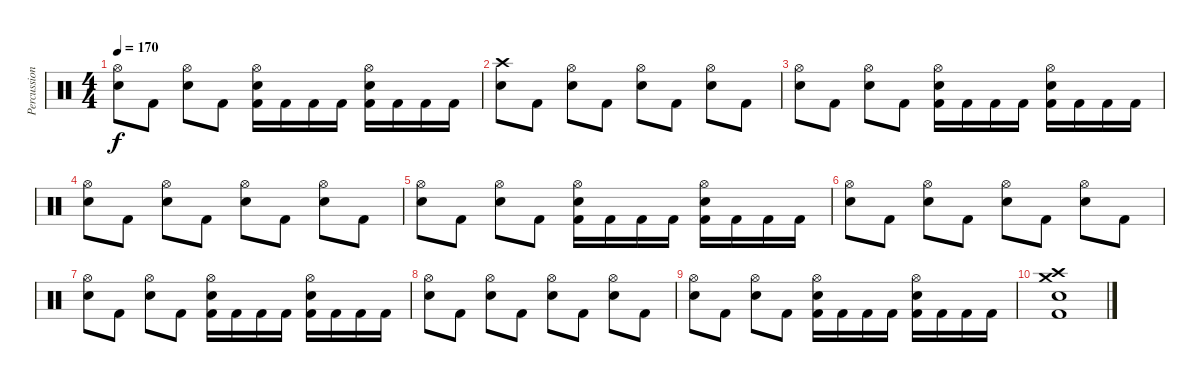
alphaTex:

\track ("Percussion" "Percussion") {instrument percussion}
\staff {score}
\articulation defaults
\ts (4 4)
\tempo 170
\clef neutral
\ks c
("Hi-Hat (open)" "Snare (hit) 2").8{dy f} "Kick (hit) 2".8 ("Hi-Hat (open)" "Snare (hit) 2").8 "Kick (hit) 2".8 ("Hi-Hat (open)" "Snare (hit) 2" "Kick (hit) 2").16 "Kick (hit) 2".16 "Kick (hit) 2".16 "Kick (hit) 2".16 ("Hi-Hat (open)" "Snare (hit) 2" "Kick (hit) 2").16 "Kick (hit) 2".16 "Kick (hit) 2".16 "Kick (hit) 2".16 |
("Crash high (hit)" "Snare (hit) 2").8 "Kick (hit) 2".8 ("Hi-Hat (open)" "Snare (hit) 2").8 "Kick (hit) 2".8 ("Hi-Hat (open)" "Snare (hit) 2").8 "Kick (hit) 2".8 ("Hi-Hat (open)" "Snare (hit) 2").8 "Kick (hit) 2".8 |
("Hi-Hat (open)" "Snare (hit) 2").8 "Kick (hit) 2".8 ("Hi-Hat (open)" "Snare (hit) 2").8 "Kick (hit) 2".8 ("Hi-Hat (open)" "Snare (hit) 2" "Kick (hit) 2").16 "Kick (hit) 2".16 "Kick (hit) 2".16 "Kick (hit) 2".16 ("Hi-Hat (open)" "Snare (hit) 2" "Kick (hit) 2").16 "Kick (hit) 2".16 "Kick (hit) 2".16 "Kick (hit) 2".16 |
("Hi-Hat (open)" "Snare (hit) 2").8 "Kick (hit) 2".8 ("Hi-Hat (open)" "Snare (hit) 2").8 "Kick (hit) 2".8 ("Hi-Hat (open)" "Snare (hit) 2").8 "Kick (hit) 2".8 ("Hi-Hat (open)" "Snare (hit) 2").8 "Kick (hit) 2".8 |
("Hi-Hat (open)" "Snare (hit) 2").8 "Kick (hit) 2".8 ("Hi-Hat (open)" "Snare (hit) 2").8 "Kick (hit) 2".8 ("Hi-Hat (open)" "Snare (hit) 2" "Kick (hit) 2").16 "Kick (hit) 2".16 "Kick (hit) 2".16 "Kick (hit) 2".16 ("Hi-Hat (open)" "Snare (hit) 2" "Kick (hit) 2").16 "Kick (hit) 2".16 "Kick (hit) 2".16 "Kick (hit) 2".16 |
("Hi-Hat (open)" "Snare (hit) 2").8 "Kick (hit) 2".8 ("Hi-Hat (open)" "Snare (hit) 2").8 "Kick (hit) 2".8 ("Hi-Hat (open)" "Snare (hit) 2").8 "Kick (hit) 2".8 ("Hi-Hat (open)" "Snare (hit) 2").8 "Kick (hit) 2".8 |
("Hi-Hat (open)" "Snare (hit) 2").8 "Kick (hit) 2".8 ("Hi-Hat (open)" "Snare (hit) 2").8 "Kick (hit) 2".8 ("Hi-Hat (open)" "Snare (hit) 2" "Kick (hit) 2").16 "Kick (hit) 2".16 "Kick (hit) 2".16 "Kick (hit) 2".16 ("Hi-Hat (open)" "Snare (hit) 2" "Kick (hit) 2").16 "Kick (hit) 2".16 "Kick (hit) 2".16 "Kick (hit) 2".16 |
("Hi-Hat (open)" "Snare (hit) 2").8 "Kick (hit) 2".8 ("Hi-Hat (open)" "Snare (hit) 2").8 "Kick (hit) 2".8 ("Hi-Hat (open)" "Snare (hit) 2").8 "Kick (hit) 2".8 ("Hi-Hat (open)" "Snare (hit) 2").8 "Kick (hit) 2".8 |
("Hi-Hat (open)" "Snare (hit) 2").8 "Kick (hit) 2".8 ("Hi-Hat (open)" "Snare (hit) 2").8 "Kick (hit) 2".8 ("Hi-Hat (open)" "Snare (hit) 2" "Kick (hit) 2").16 "Kick (hit) 2".16 "Kick (hit) 2".16 "Kick (hit) 2".16 ("Hi-Hat (open)" "Snare (hit) 2" "Kick (hit) 2").16 "Kick (hit) 2".16 "Kick (hit) 2".16 "Kick (hit) 2".16 |
("Crash high (hit)" "Crash medium (hit)" "Snare (hit) 2" "Kick (hit) 2").1
